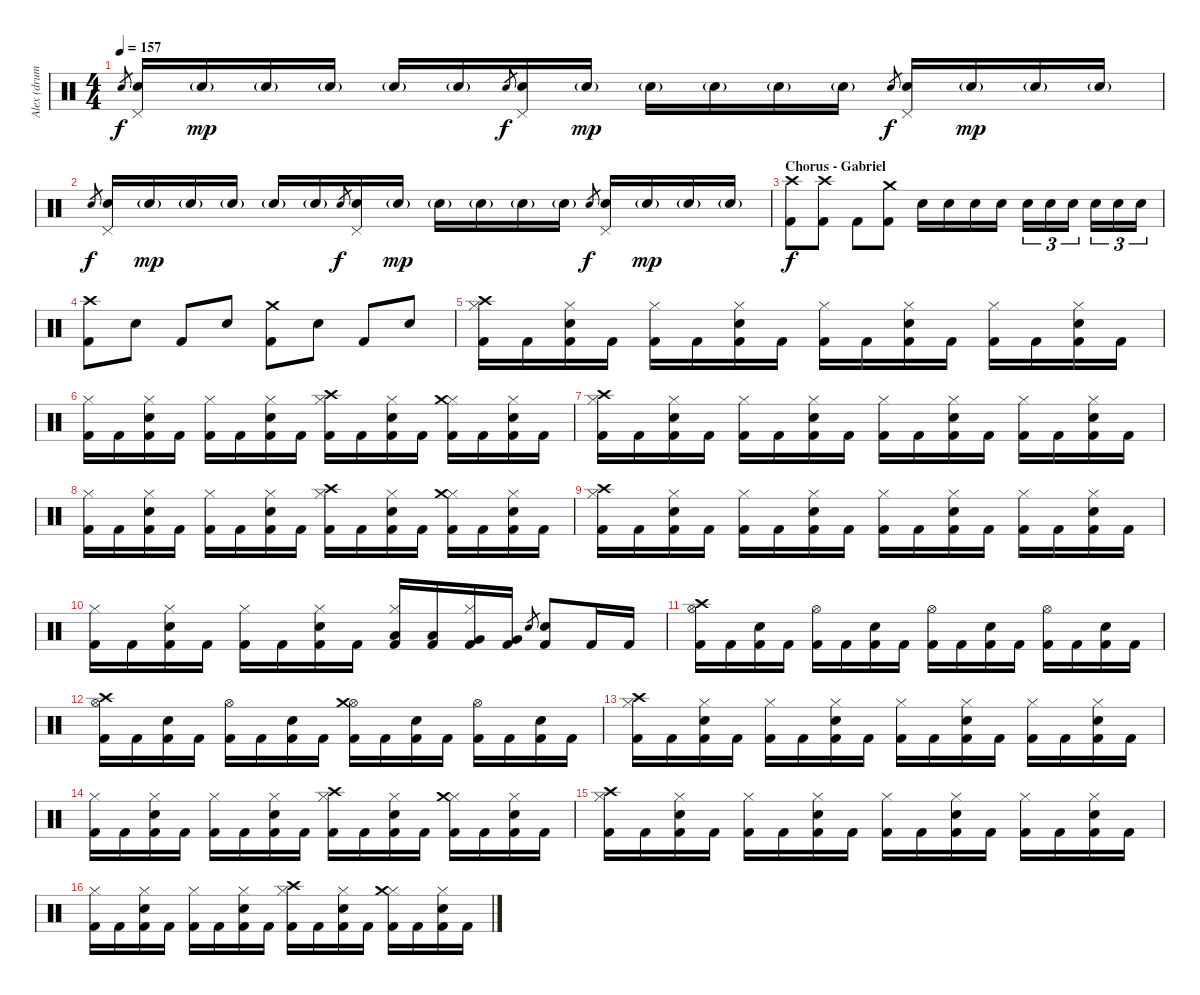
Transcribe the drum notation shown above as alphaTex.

\track ("Alex (drums)" "Alex (drum") {instrument percussion}
\staff {score}
\articulation defaults
\ts (4 4)
\tempo 157
\clef neutral
\ks c "Snare (hit) 2".8{gr dy f}
("Pedal Hi-Hat (hit)" "Snare (hit) 2").16 "Snare (hit) 2"{g}.16{dy mp} "Snare (hit) 2"{g}.16 "Snare (hit) 2"{g}.16 "Snare (hit) 2"{g}.16 "Snare (hit) 2"{g}.16 "Snare (hit) 2".8{gr dy f} ("Pedal Hi-Hat (hit)" "Snare (hit) 2").16 "Snare (hit) 2"{g}.16{dy mp} "Snare (hit) 2"{g}.16 "Snare (hit) 2"{g}.16 "Snare (hit) 2"{g}.16 "Snare (hit) 2"{g}.16 "Snare (hit) 2".8{gr dy f} ("Pedal Hi-Hat (hit)" "Snare (hit) 2").16 "Snare (hit) 2"{g}.16{dy mp} "Snare (hit) 2"{g}.16 "Snare (hit) 2"{g}.16 |
"Snare (hit) 2".8{gr dy f} ("Pedal Hi-Hat (hit)" "Snare (hit) 2").16 "Snare (hit) 2"{g}.16{dy mp} "Snare (hit) 2"{g}.16 "Snare (hit) 2"{g}.16 "Snare (hit) 2"{g}.16 "Snare (hit) 2"{g}.16 "Snare (hit) 2".8{gr dy f} ("Pedal Hi-Hat (hit)" "Snare (hit) 2").16 "Snare (hit) 2"{g}.16{dy mp} "Snare (hit) 2"{g}.16 "Snare (hit) 2"{g}.16 "Snare (hit) 2"{g}.16 "Snare (hit) 2"{g}.16 "Snare (hit) 2".8{gr dy f} ("Pedal Hi-Hat (hit)" "Snare (hit) 2").16 "Snare (hit) 2"{g}.16{dy mp} "Snare (hit) 2"{g}.16 "Snare (hit) 2"{g}.16 |
\section ("" "Chorus - Gabriel")
("Kick (hit) 2" "Crash high (hit)").8{dy f} ("Kick (hit) 2" "Crash high (hit)").8 "Kick (hit) 2".8 ("Kick (hit) 2" "Crash medium (hit)").8 "Snare (hit) 2".16 "Snare (hit) 2".16 "Snare (hit) 2".16 "Snare (hit) 2".16 "Snare (hit) 2".16{tu (3 2)} "Snare (hit) 2".16{tu (3 2)} "Snare (hit) 2".16{tu (3 2)} "Snare (hit) 2".16{tu (3 2)} "Snare (hit) 2".16{tu (3 2)} "Snare (hit) 2".16{tu (3 2)} |
("Kick (hit) 2" "Crash high (hit)").8 "Snare (hit) 2".8 "Kick (hit) 2".8 "Snare (hit) 2".8 ("Kick (hit) 2" "Crash medium (hit)").8 "Snare (hit) 2".8 "Kick (hit) 2".8 "Snare (hit) 2".8 |
("Hi-Hat (closed)" "Kick (hit) 2" "Crash high (hit)").16 "Kick (hit) 2".16 ("Hi-Hat (closed)" "Snare (hit) 2" "Kick (hit) 2").16 "Kick (hit) 2".16 ("Hi-Hat (closed)" "Kick (hit) 2").16 "Kick (hit) 2".16 ("Hi-Hat (closed)" "Snare (hit) 2" "Kick (hit) 2").16 "Kick (hit) 2".16 ("Hi-Hat (closed)" "Kick (hit) 2").16 "Kick (hit) 2".16 ("Hi-Hat (closed)" "Snare (hit) 2" "Kick (hit) 2").16 "Kick (hit) 2".16 ("Hi-Hat (closed)" "Kick (hit) 2").16 "Kick (hit) 2".16 ("Hi-Hat (closed)" "Snare (hit) 2" "Kick (hit) 2").16 "Kick (hit) 2".16 |
("Hi-Hat (closed)" "Kick (hit) 2").16 "Kick (hit) 2".16 ("Hi-Hat (closed)" "Snare (hit) 2" "Kick (hit) 2").16 "Kick (hit) 2".16 ("Hi-Hat (closed)" "Kick (hit) 2").16 "Kick (hit) 2".16 ("Hi-Hat (closed)" "Snare (hit) 2" "Kick (hit) 2").16 "Kick (hit) 2".16 ("Hi-Hat (closed)" "Kick (hit) 2" "Crash high (hit)").16 "Kick (hit) 2".16 ("Hi-Hat (closed)" "Snare (hit) 2" "Kick (hit) 2").16 "Kick (hit) 2".16 ("Hi-Hat (closed)" "Kick (hit) 2" "Crash medium (hit)").16 "Kick (hit) 2".16 ("Hi-Hat (closed)" "Snare (hit) 2" "Kick (hit) 2").16 "Kick (hit) 2".16 |
("Hi-Hat (closed)" "Kick (hit) 2" "Crash high (hit)").16 "Kick (hit) 2".16 ("Hi-Hat (closed)" "Snare (hit) 2" "Kick (hit) 2").16 "Kick (hit) 2".16 ("Hi-Hat (closed)" "Kick (hit) 2").16 "Kick (hit) 2".16 ("Hi-Hat (closed)" "Snare (hit) 2" "Kick (hit) 2").16 "Kick (hit) 2".16 ("Hi-Hat (closed)" "Kick (hit) 2").16 "Kick (hit) 2".16 ("Hi-Hat (closed)" "Snare (hit) 2" "Kick (hit) 2").16 "Kick (hit) 2".16 ("Hi-Hat (closed)" "Kick (hit) 2").16 "Kick (hit) 2".16 ("Hi-Hat (closed)" "Snare (hit) 2" "Kick (hit) 2").16 "Kick (hit) 2".16 |
("Hi-Hat (closed)" "Kick (hit) 2").16 "Kick (hit) 2".16 ("Hi-Hat (closed)" "Snare (hit) 2" "Kick (hit) 2").16 "Kick (hit) 2".16 ("Hi-Hat (closed)" "Kick (hit) 2").16 "Kick (hit) 2".16 ("Hi-Hat (closed)" "Snare (hit) 2" "Kick (hit) 2").16 "Kick (hit) 2".16 ("Hi-Hat (closed)" "Kick (hit) 2" "Crash high (hit)").16 "Kick (hit) 2".16 ("Hi-Hat (closed)" "Snare (hit) 2" "Kick (hit) 2").16 "Kick (hit) 2".16 ("Hi-Hat (closed)" "Kick (hit) 2" "Crash medium (hit)").16 "Kick (hit) 2".16 ("Hi-Hat (closed)" "Snare (hit) 2" "Kick (hit) 2").16 "Kick (hit) 2".16 |
("Hi-Hat (closed)" "Kick (hit) 2" "Crash high (hit)").16 "Kick (hit) 2".16 ("Hi-Hat (closed)" "Snare (hit) 2" "Kick (hit) 2").16 "Kick (hit) 2".16 ("Hi-Hat (closed)" "Kick (hit) 2").16 "Kick (hit) 2".16 ("Hi-Hat (closed)" "Snare (hit) 2" "Kick (hit) 2").16 "Kick (hit) 2".16 ("Hi-Hat (closed)" "Kick (hit) 2").16 "Kick (hit) 2".16 ("Hi-Hat (closed)" "Snare (hit) 2" "Kick (hit) 2").16 "Kick (hit) 2".16 ("Hi-Hat (closed)" "Kick (hit) 2").16 "Kick (hit) 2".16 ("Hi-Hat (closed)" "Snare (hit) 2" "Kick (hit) 2").16 "Kick (hit) 2".16 |
("Hi-Hat (closed)" "Kick (hit) 2").16 "Kick (hit) 2".16 ("Hi-Hat (closed)" "Snare (hit) 2" "Kick (hit) 2").16 "Kick (hit) 2".16 ("Hi-Hat (closed)" "Kick (hit) 2").16 "Kick (hit) 2".16 ("Hi-Hat (closed)" "Snare (hit) 2" "Kick (hit) 2").16 "Kick (hit) 2".16 ("Hi-Hat (closed)" "Kick (hit) 2" "Low Tom (hit)").16 ("Kick (hit) 2" "Low Tom (hit)").16 ("Hi-Hat (closed)" "Kick (hit) 2" "Very Low Tom (hit)").16 ("Kick (hit) 2" "Very Low Tom (hit)").16 "Snare (hit) 2".8{gr} ("Snare (hit) 2" "Kick (hit) 2").8 "Kick (hit) 2".16 "Kick (hit) 2".16 |
("Hi-Hat (open)" "Kick (hit) 2" "Crash high (hit)").16 "Kick (hit) 2".16 ("Snare (hit) 2" "Kick (hit) 2").16 "Kick (hit) 2".16 ("Hi-Hat (open)" "Kick (hit) 2").16 "Kick (hit) 2".16 ("Snare (hit) 2" "Kick (hit) 2").16 "Kick (hit) 2".16 ("Hi-Hat (open)" "Kick (hit) 2").16 "Kick (hit) 2".16 ("Snare (hit) 2" "Kick (hit) 2").16 "Kick (hit) 2".16 ("Hi-Hat (open)" "Kick (hit) 2").16 "Kick (hit) 2".16 ("Snare (hit) 2" "Kick (hit) 2").16 "Kick (hit) 2".16 |
("Hi-Hat (open)" "Kick (hit) 2" "Crash high (hit)").16 "Kick (hit) 2".16 ("Snare (hit) 2" "Kick (hit) 2").16 "Kick (hit) 2".16 ("Hi-Hat (open)" "Kick (hit) 2").16 "Kick (hit) 2".16 ("Snare (hit) 2" "Kick (hit) 2").16 "Kick (hit) 2".16 ("Hi-Hat (open)" "Kick (hit) 2" "Crash medium (hit)").16 "Kick (hit) 2".16 ("Snare (hit) 2" "Kick (hit) 2").16 "Kick (hit) 2".16 ("Hi-Hat (open)" "Kick (hit) 2").16 "Kick (hit) 2".16 ("Snare (hit) 2" "Kick (hit) 2").16 "Kick (hit) 2".16 |
("Hi-Hat (closed)" "Kick (hit) 2" "Crash high (hit)").16 "Kick (hit) 2".16 ("Hi-Hat (closed)" "Snare (hit) 2" "Kick (hit) 2").16 "Kick (hit) 2".16 ("Hi-Hat (closed)" "Kick (hit) 2").16 "Kick (hit) 2".16 ("Hi-Hat (closed)" "Snare (hit) 2" "Kick (hit) 2").16 "Kick (hit) 2".16 ("Hi-Hat (closed)" "Kick (hit) 2").16 "Kick (hit) 2".16 ("Hi-Hat (closed)" "Snare (hit) 2" "Kick (hit) 2").16 "Kick (hit) 2".16 ("Hi-Hat (closed)" "Kick (hit) 2").16 "Kick (hit) 2".16 ("Hi-Hat (closed)" "Snare (hit) 2" "Kick (hit) 2").16 "Kick (hit) 2".16 |
("Hi-Hat (closed)" "Kick (hit) 2").16 "Kick (hit) 2".16 ("Hi-Hat (closed)" "Snare (hit) 2" "Kick (hit) 2").16 "Kick (hit) 2".16 ("Hi-Hat (closed)" "Kick (hit) 2").16 "Kick (hit) 2".16 ("Hi-Hat (closed)" "Snare (hit) 2" "Kick (hit) 2").16 "Kick (hit) 2".16 ("Hi-Hat (closed)" "Kick (hit) 2" "Crash high (hit)").16 "Kick (hit) 2".16 ("Hi-Hat (closed)" "Snare (hit) 2" "Kick (hit) 2").16 "Kick (hit) 2".16 ("Hi-Hat (closed)" "Kick (hit) 2" "Crash medium (hit)").16 "Kick (hit) 2".16 ("Hi-Hat (closed)" "Snare (hit) 2" "Kick (hit) 2").16 "Kick (hit) 2".16 |
("Hi-Hat (closed)" "Kick (hit) 2" "Crash high (hit)").16 "Kick (hit) 2".16 ("Hi-Hat (closed)" "Snare (hit) 2" "Kick (hit) 2").16 "Kick (hit) 2".16 ("Hi-Hat (closed)" "Kick (hit) 2").16 "Kick (hit) 2".16 ("Hi-Hat (closed)" "Snare (hit) 2" "Kick (hit) 2").16 "Kick (hit) 2".16 ("Hi-Hat (closed)" "Kick (hit) 2").16 "Kick (hit) 2".16 ("Hi-Hat (closed)" "Snare (hit) 2" "Kick (hit) 2").16 "Kick (hit) 2".16 ("Hi-Hat (closed)" "Kick (hit) 2").16 "Kick (hit) 2".16 ("Hi-Hat (closed)" "Snare (hit) 2" "Kick (hit) 2").16 "Kick (hit) 2".16 |
("Hi-Hat (closed)" "Kick (hit) 2").16 "Kick (hit) 2".16 ("Hi-Hat (closed)" "Snare (hit) 2" "Kick (hit) 2").16 "Kick (hit) 2".16 ("Hi-Hat (closed)" "Kick (hit) 2").16 "Kick (hit) 2".16 ("Hi-Hat (closed)" "Snare (hit) 2" "Kick (hit) 2").16 "Kick (hit) 2".16 ("Hi-Hat (closed)" "Kick (hit) 2" "Crash high (hit)").16 "Kick (hit) 2".16 ("Hi-Hat (closed)" "Snare (hit) 2" "Kick (hit) 2").16 "Kick (hit) 2".16 ("Hi-Hat (closed)" "Kick (hit) 2" "Crash medium (hit)").16 "Kick (hit) 2".16 ("Hi-Hat (closed)" "Snare (hit) 2" "Kick (hit) 2").16 "Kick (hit) 2".16
